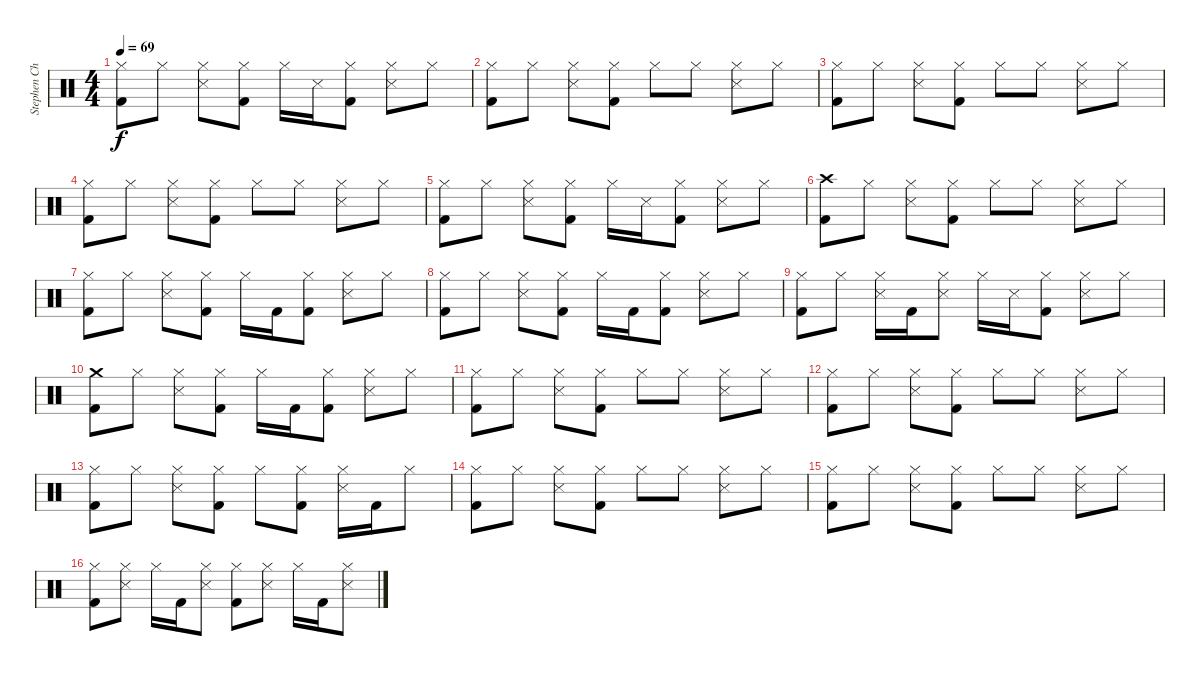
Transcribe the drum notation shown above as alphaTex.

\track ("Stephen Chopek" "Stephen Ch") {instrument percussion}
\staff {score}
\articulation defaults
\ts (4 4)
\tempo 69
\clef neutral
\ks c
("Hi-Hat (closed)" "Kick (hit) 2").8{dy f} "Hi-Hat (closed)".8 ("Hi-Hat (closed)" "Snare (side stick) 3").8 ("Hi-Hat (closed)" "Kick (hit) 2").8 "Hi-Hat (closed)".16 "Snare (side stick) 3".16 ("Hi-Hat (closed)" "Kick (hit) 2").8 ("Hi-Hat (closed)" "Snare (side stick) 3").8 "Hi-Hat (closed)".8 |
("Hi-Hat (closed)" "Kick (hit) 2").8 "Hi-Hat (closed)".8 ("Hi-Hat (closed)" "Snare (side stick) 3").8 ("Hi-Hat (closed)" "Kick (hit) 2").8 "Hi-Hat (closed)".8 "Hi-Hat (closed)".8 ("Hi-Hat (closed)" "Snare (side stick) 3").8 "Hi-Hat (closed)".8 |
("Hi-Hat (closed)" "Kick (hit) 2").8 "Hi-Hat (closed)".8 ("Hi-Hat (closed)" "Snare (side stick) 3").8 ("Hi-Hat (closed)" "Kick (hit) 2").8 "Hi-Hat (closed)".8 "Hi-Hat (closed)".8 ("Hi-Hat (closed)" "Snare (side stick) 3").8 "Hi-Hat (closed)".8 |
("Hi-Hat (closed)" "Kick (hit) 2").8 "Hi-Hat (closed)".8 ("Hi-Hat (closed)" "Snare (side stick) 3").8 ("Hi-Hat (closed)" "Kick (hit) 2").8 "Hi-Hat (closed)".8 "Hi-Hat (closed)".8 ("Hi-Hat (closed)" "Snare (side stick) 3").8 "Hi-Hat (closed)".8 |
("Hi-Hat (closed)" "Kick (hit) 2").8 "Hi-Hat (closed)".8 ("Hi-Hat (closed)" "Snare (side stick) 3").8 ("Hi-Hat (closed)" "Kick (hit) 2").8 "Hi-Hat (closed)".16 "Snare (side stick) 3".16 ("Hi-Hat (closed)" "Kick (hit) 2").8 ("Hi-Hat (closed)" "Snare (side stick) 3").8 "Hi-Hat (closed)".8 |
("Crash high (hit)" "Kick (hit) 2").8 "Hi-Hat (closed)".8 ("Hi-Hat (closed)" "Snare (side stick) 3").8 ("Hi-Hat (closed)" "Kick (hit) 2").8 "Hi-Hat (closed)".8 "Hi-Hat (closed)".8 ("Hi-Hat (closed)" "Snare (side stick) 3").8 "Hi-Hat (closed)".8 |
("Hi-Hat (closed)" "Kick (hit) 2").8 "Hi-Hat (closed)".8 ("Hi-Hat (closed)" "Snare (side stick) 3").8 ("Hi-Hat (closed)" "Kick (hit) 2").8 "Hi-Hat (closed)".16 "Kick (hit) 2".16 ("Hi-Hat (closed)" "Kick (hit) 2").8 ("Hi-Hat (closed)" "Snare (side stick) 3").8 "Hi-Hat (closed)".8 |
("Hi-Hat (closed)" "Kick (hit) 2").8 "Hi-Hat (closed)".8 ("Hi-Hat (closed)" "Snare (side stick) 3").8 ("Hi-Hat (closed)" "Kick (hit) 2").8 "Hi-Hat (closed)".16 "Kick (hit) 2".16 ("Hi-Hat (closed)" "Kick (hit) 2").8 ("Hi-Hat (closed)" "Snare (side stick) 3").8 "Hi-Hat (closed)".8 |
("Hi-Hat (closed)" "Kick (hit) 2").8 "Hi-Hat (closed)".8 ("Hi-Hat (closed)" "Snare (side stick) 3").16 "Kick (hit) 2".16 ("Hi-Hat (closed)" "Snare (side stick) 3").8 "Hi-Hat (closed)".16 "Snare (side stick) 3".16 ("Hi-Hat (closed)" "Kick (hit) 2").8 ("Hi-Hat (closed)" "Snare (side stick) 3").8 "Hi-Hat (closed)".8 |
("Crash medium (hit)" "Kick (hit) 2").8 "Hi-Hat (closed)".8 ("Hi-Hat (closed)" "Snare (side stick) 3").8 ("Hi-Hat (closed)" "Kick (hit) 2").8 "Hi-Hat (closed)".16 "Kick (hit) 2".16 ("Hi-Hat (closed)" "Kick (hit) 2").8 ("Hi-Hat (closed)" "Snare (side stick) 3").8 "Hi-Hat (closed)".8 |
("Hi-Hat (closed)" "Kick (hit) 2").8 "Hi-Hat (closed)".8 ("Hi-Hat (closed)" "Snare (side stick) 3").8 ("Hi-Hat (closed)" "Kick (hit) 2").8 "Hi-Hat (closed)".8 "Hi-Hat (closed)".8 ("Hi-Hat (closed)" "Snare (side stick) 3").8 "Hi-Hat (closed)".8 |
("Hi-Hat (closed)" "Kick (hit) 2").8 "Hi-Hat (closed)".8 ("Hi-Hat (closed)" "Snare (side stick) 3").8 ("Hi-Hat (closed)" "Kick (hit) 2").8 "Hi-Hat (closed)".8 "Hi-Hat (closed)".8 ("Hi-Hat (closed)" "Snare (side stick) 3").8 "Hi-Hat (closed)".8 |
("Hi-Hat (closed)" "Kick (hit) 2").8 "Hi-Hat (closed)".8 ("Hi-Hat (closed)" "Snare (side stick) 3").8 ("Hi-Hat (closed)" "Kick (hit) 2").8 "Hi-Hat (closed)".8 ("Hi-Hat (closed)" "Kick (hit) 2").8 ("Hi-Hat (closed)" "Snare (side stick) 3").16 "Kick (hit) 2".16 "Hi-Hat (closed)".8 |
("Hi-Hat (closed)" "Kick (hit) 2").8 "Hi-Hat (closed)".8 ("Hi-Hat (closed)" "Snare (side stick) 3").8 ("Hi-Hat (closed)" "Kick (hit) 2").8 "Hi-Hat (closed)".8 "Hi-Hat (closed)".8 ("Hi-Hat (closed)" "Snare (side stick) 3").8 "Hi-Hat (closed)".8 |
("Hi-Hat (closed)" "Kick (hit) 2").8 "Hi-Hat (closed)".8 ("Hi-Hat (closed)" "Snare (side stick) 3").8 ("Hi-Hat (closed)" "Kick (hit) 2").8 "Hi-Hat (closed)".8 "Hi-Hat (closed)".8 ("Hi-Hat (closed)" "Snare (side stick) 3").8 "Hi-Hat (closed)".8 |
("Hi-Hat (closed)" "Kick (hit) 2").8{volume 12} ("Hi-Hat (closed)" "Snare (side stick) 3").8 "Hi-Hat (closed)".16 "Kick (hit) 2".16 ("Hi-Hat (closed)" "Snare (side stick) 3").8 ("Hi-Hat (closed)" "Kick (hit) 2").8 ("Hi-Hat (closed)" "Snare (side stick) 3").8 "Hi-Hat (closed)".16 "Kick (hit) 2".16 ("Hi-Hat (closed)" "Snare (side stick) 3").8
